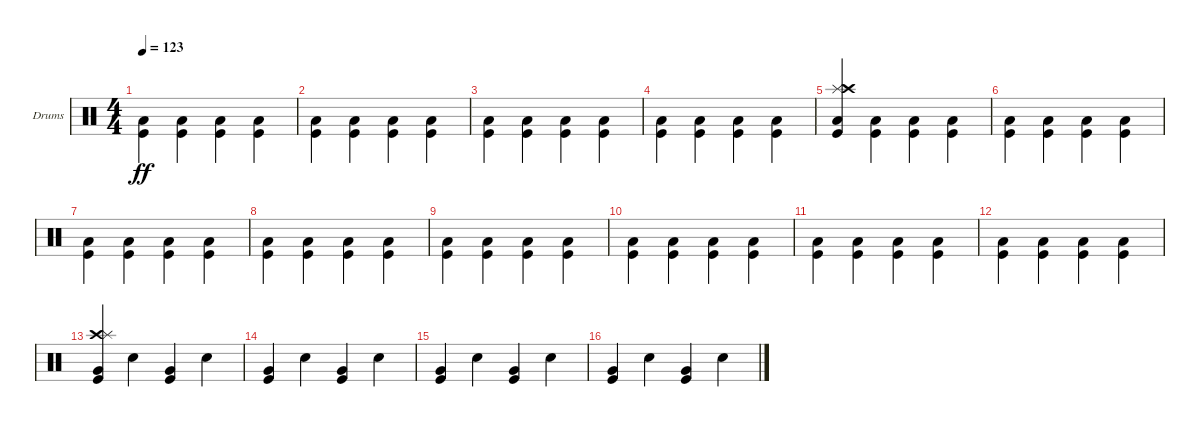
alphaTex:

\defaultSystemsLayout 4
\bracketExtendMode groupsimilarinstruments
\firstSystemTrackNameOrientation horizontal
\otherSystemsTrackNameOrientation horizontal
\track ("Drumkit" "Drums") {instrument percussion}
\staff {score}
\articulation defaults
\ts (4 4)
\tempo 123
\clef neutral
\scale
0.333333
\ks c
("Kick (hit)" "Low Tom (hit)").4{dy ff beam invert} ("Kick (hit)" "Low Tom (hit)").4{beam invert} ("Kick (hit)" "Low Tom (hit)").4{beam invert} ("Kick (hit)" "Low Tom (hit)").4{beam invert} |
\scale
0.333333 ("Kick (hit)" "Low Tom (hit)").4{beam invert} ("Kick (hit)" "Low Tom (hit)").4{beam invert} ("Kick (hit)" "Low Tom (hit)").4{beam invert} ("Kick (hit)" "Low Tom (hit)").4{beam invert} |
\scale
0.333333 ("Kick (hit)" "Low Tom (hit)").4{beam invert} ("Kick (hit)" "Low Tom (hit)").4{beam invert} ("Kick (hit)" "Low Tom (hit)").4{beam invert} ("Kick (hit)" "Low Tom (hit)").4{beam invert} |
\scale
0.333333 ("Kick (hit)" "Low Tom (hit)").4{beam invert} ("Kick (hit)" "Low Tom (hit)").4{beam invert} ("Kick (hit)" "Low Tom (hit)").4{beam invert} ("Kick (hit)" "Low Tom (hit)").4{beam invert} |
\scale
0.333333 ("Kick (hit)" "Low Tom (hit)" "Splash (hit)" "Crash high (hit)").4{beam invert} ("Kick (hit)" "Low Tom (hit)").4{beam invert} ("Kick (hit)" "Low Tom (hit)").4{beam invert} ("Kick (hit)" "Low Tom (hit)").4{beam invert} |
\scale
0.333333 ("Kick (hit)" "Low Tom (hit)").4{beam invert} ("Kick (hit)" "Low Tom (hit)").4{beam invert} ("Kick (hit)" "Low Tom (hit)").4{beam invert} ("Kick (hit)" "Low Tom (hit)").4{beam invert} |
\scale
0.333333 ("Kick (hit)" "Low Tom (hit)").4{beam invert} ("Kick (hit)" "Low Tom (hit)").4{beam invert} ("Kick (hit)" "Low Tom (hit)").4{beam invert} ("Kick (hit)" "Low Tom (hit)").4{beam invert} |
\scale
0.333333 ("Kick (hit)" "Low Tom (hit)").4{beam invert} ("Kick (hit)" "Low Tom (hit)").4{beam invert} ("Kick (hit)" "Low Tom (hit)").4{beam invert} ("Kick (hit)" "Low Tom (hit)").4{beam invert} |
\scale
0.333333 ("Kick (hit)" "Low Tom (hit)").4{beam invert} ("Kick (hit)" "Low Tom (hit)").4{beam invert} ("Kick (hit)" "Low Tom (hit)").4{beam invert} ("Kick (hit)" "Low Tom (hit)").4{beam invert} |
\scale
0.333333 ("Kick (hit)" "Low Tom (hit)").4{beam invert} ("Kick (hit)" "Low Tom (hit)").4{beam invert} ("Kick (hit)" "Low Tom (hit)").4{beam invert} ("Kick (hit)" "Low Tom (hit)").4{beam invert} |
\scale
0.333333 ("Kick (hit)" "Low Tom (hit)").4{beam invert} ("Kick (hit)" "Low Tom (hit)").4{beam invert} ("Kick (hit)" "Low Tom (hit)").4{beam invert} ("Kick (hit)" "Low Tom (hit)").4{beam invert} |
\scale
0.333333 ("Kick (hit)" "Low Tom (hit)").4{beam invert} ("Kick (hit)" "Low Tom (hit)").4{beam invert} ("Kick (hit)" "Low Tom (hit)").4{beam invert} ("Kick (hit)" "Low Tom (hit)").4{beam invert} |
\scale
0.333333 ("Kick (hit)" "Very Low Tom (hit)" "Crash high (hit)" "Splash (hit)").4 "Snare (hit) 2".4 ("Kick (hit)" "Very Low Tom (hit)").4 "Snare (hit) 2".4 |
\scale
0.333333 ("Kick (hit)" "Very Low Tom (hit)").4 "Snare (hit) 2".4 ("Kick (hit)" "Very Low Tom (hit)").4 "Snare (hit) 2".4 |
\scale
0.333333 ("Kick (hit)" "Very Low Tom (hit)").4 "Snare (hit) 2".4 ("Kick (hit)" "Very Low Tom (hit)").4 "Snare (hit) 2".4 |
\scale
0.333333 ("Kick (hit)" "Very Low Tom (hit)").4 "Snare (hit) 2".4 ("Kick (hit)" "Very Low Tom (hit)").4 "Snare (hit) 2".4
